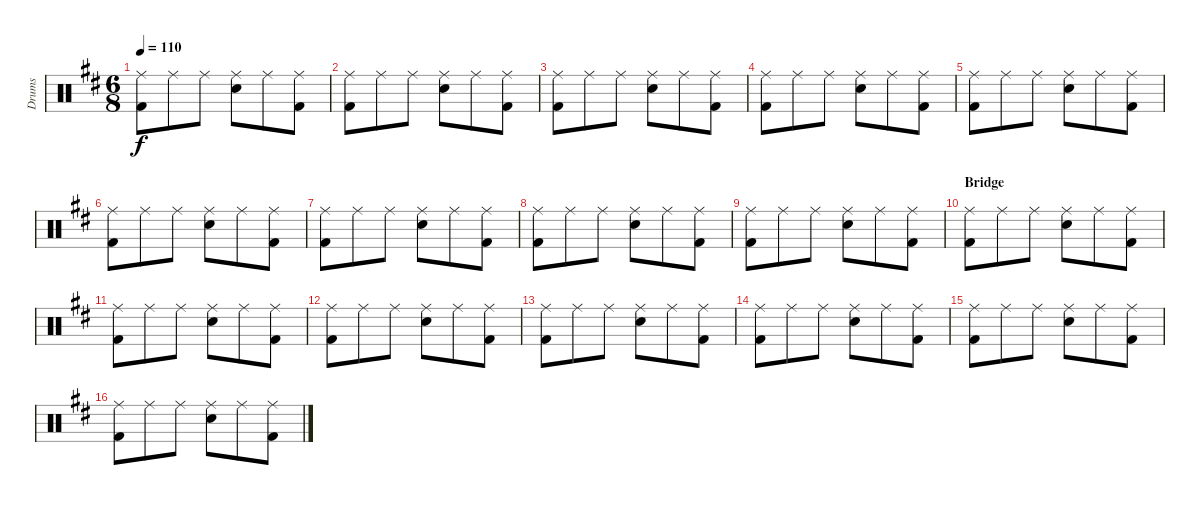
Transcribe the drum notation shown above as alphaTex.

\track ("Drums" "Drums") {instrument percussion}
\staff {score}
\articulation defaults
\ts (6 8)
\tempo 110
\clef neutral
\ks d
("Ride (middle)" "Kick (hit) 2").8{dy f} "Ride (middle)".8 "Ride (middle)".8 ("Ride (middle)" "Electric Snare (hit)").8 "Ride (middle)".8 ("Ride (middle)" "Kick (hit) 2").8 |
("Ride (middle)" "Kick (hit) 2").8 "Ride (middle)".8 "Ride (middle)".8 ("Ride (middle)" "Electric Snare (hit)").8 "Ride (middle)".8 ("Ride (middle)" "Kick (hit) 2").8 |
("Ride (middle)" "Kick (hit) 2").8 "Ride (middle)".8 "Ride (middle)".8 ("Ride (middle)" "Electric Snare (hit)").8 "Ride (middle)".8 ("Ride (middle)" "Kick (hit) 2").8 |
("Ride (middle)" "Kick (hit) 2").8 "Ride (middle)".8 "Ride (middle)".8 ("Ride (middle)" "Electric Snare (hit)").8 "Ride (middle)".8 ("Ride (middle)" "Kick (hit) 2").8 |
("Ride (middle)" "Kick (hit) 2").8 "Ride (middle)".8 "Ride (middle)".8 ("Ride (middle)" "Electric Snare (hit)").8 "Ride (middle)".8 ("Ride (middle)" "Kick (hit) 2").8 |
("Ride (middle)" "Kick (hit) 2").8 "Ride (middle)".8 "Ride (middle)".8 ("Ride (middle)" "Electric Snare (hit)").8 "Ride (middle)".8 ("Ride (middle)" "Kick (hit) 2").8 |
("Ride (middle)" "Kick (hit) 2").8 "Ride (middle)".8 "Ride (middle)".8 ("Ride (middle)" "Electric Snare (hit)").8 "Ride (middle)".8 ("Ride (middle)" "Kick (hit) 2").8 |
("Ride (middle)" "Kick (hit) 2").8 "Ride (middle)".8 "Ride (middle)".8 ("Ride (middle)" "Electric Snare (hit)").8 "Ride (middle)".8 ("Ride (middle)" "Kick (hit) 2").8 |
("Ride (middle)" "Kick (hit) 2").8 "Ride (middle)".8 "Ride (middle)".8 ("Ride (middle)" "Electric Snare (hit)").8 "Ride (middle)".8 ("Ride (middle)" "Kick (hit) 2").8 |
\section ("" "Bridge")
("Ride (middle)" "Kick (hit) 2").8 "Ride (middle)".8 "Ride (middle)".8 ("Ride (middle)" "Electric Snare (hit)").8 "Ride (middle)".8 ("Ride (middle)" "Kick (hit) 2").8 |
("Ride (middle)" "Kick (hit) 2").8 "Ride (middle)".8 "Ride (middle)".8 ("Ride (middle)" "Electric Snare (hit)").8 "Ride (middle)".8 ("Ride (middle)" "Kick (hit) 2").8 |
("Ride (middle)" "Kick (hit) 2").8 "Ride (middle)".8 "Ride (middle)".8 ("Ride (middle)" "Electric Snare (hit)").8 "Ride (middle)".8 ("Ride (middle)" "Kick (hit) 2").8 |
("Ride (middle)" "Kick (hit) 2").8 "Ride (middle)".8 "Ride (middle)".8 ("Ride (middle)" "Electric Snare (hit)").8 "Ride (middle)".8 ("Ride (middle)" "Kick (hit) 2").8 |
("Ride (middle)" "Kick (hit) 2").8 "Ride (middle)".8 "Ride (middle)".8 ("Ride (middle)" "Electric Snare (hit)").8 "Ride (middle)".8 ("Ride (middle)" "Kick (hit) 2").8 |
("Ride (middle)" "Kick (hit) 2").8 "Ride (middle)".8 "Ride (middle)".8 ("Ride (middle)" "Electric Snare (hit)").8 "Ride (middle)".8 ("Ride (middle)" "Kick (hit) 2").8 |
("Ride (middle)" "Kick (hit) 2").8 "Ride (middle)".8 "Ride (middle)".8 ("Ride (middle)" "Electric Snare (hit)").8 "Ride (middle)".8 ("Ride (middle)" "Kick (hit) 2").8
